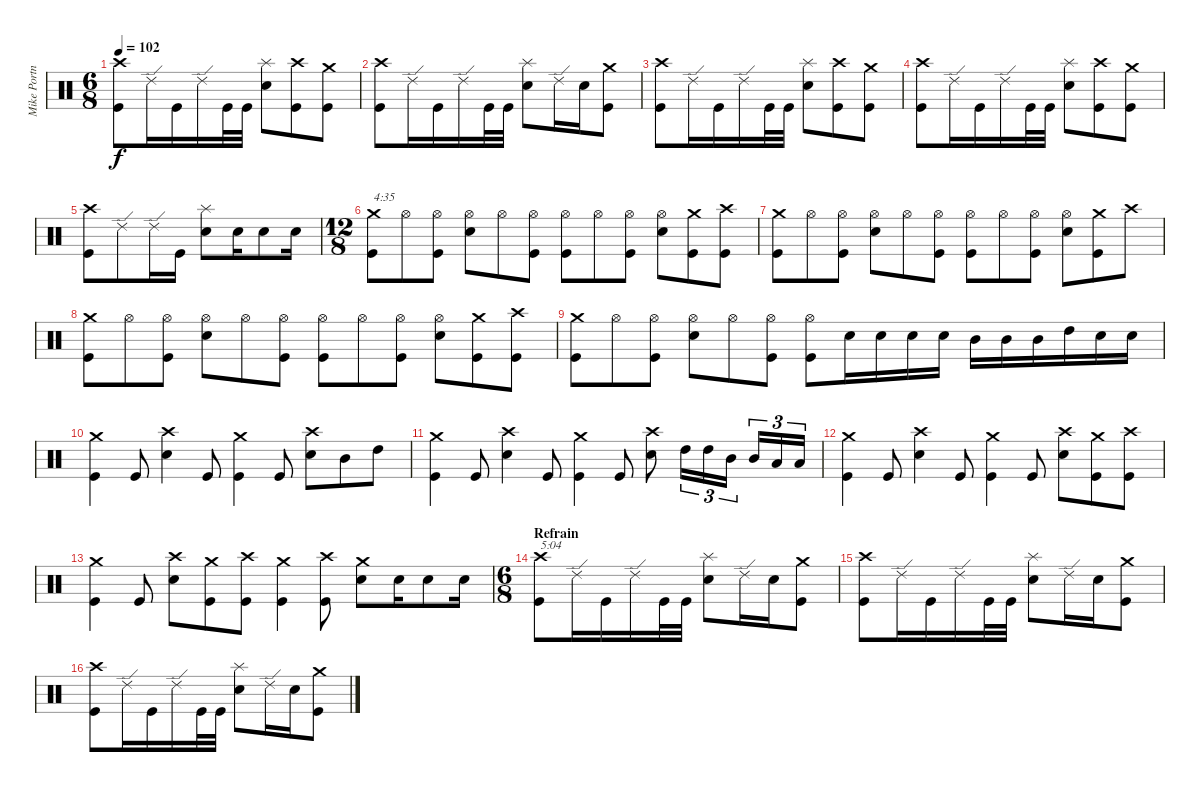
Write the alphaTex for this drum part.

\track ("Mike Portnoy" "Mike Portn") {instrument percussion}
\staff {score}
\articulation defaults
\ts (6 8)
\tempo 102
\clef neutral
\ks c
("Crash high (hit)" "Kick (hit)").8{dy f} "Ride (edge) 2".16 "Kick (hit)".16 "Ride (edge) 2".16 "Kick (hit)".32 "Kick (hit)".32 ("Splash (hit)" "Snare (hit) 2").8 ("Crash high (hit)" "Kick (hit)").8 ("Crash medium (hit)" "Kick (hit)").8 |
("Crash high (hit)" "Kick (hit)").8 "Ride (edge) 2".16 "Kick (hit)".16 "Ride (edge) 2".16 "Kick (hit)".32 "Kick (hit)".32 ("Splash (hit)" "Snare (hit) 2").8 "Ride (edge) 2".16 "Snare (hit) 2".16 ("Crash medium (hit)" "Kick (hit)").8 |
("Crash high (hit)" "Kick (hit)").8 "Ride (edge) 2".16 "Kick (hit)".16 "Ride (edge) 2".16 "Kick (hit)".32 "Kick (hit)".32 ("Splash (hit)" "Snare (hit) 2").8 ("Crash high (hit)" "Kick (hit)").8 ("Crash medium (hit)" "Kick (hit)").8 |
("Crash high (hit)" "Kick (hit)").8 "Ride (edge) 2".16 "Kick (hit)".16 "Ride (edge) 2".16 "Kick (hit)".32 "Kick (hit)".32 ("Splash (hit)" "Snare (hit) 2").8 ("Crash high (hit)" "Kick (hit)").8 ("Crash medium (hit)" "Kick (hit)").8 |
("Crash high (hit)" "Kick (hit)").8 "Ride (edge) 2".8 "Ride (edge) 2".16 "Kick (hit)".16 ("Splash (hit)" "Snare (hit) 2").8 "Snare (hit) 2".16 "Snare (hit) 2".8 "Snare (hit) 2".16 |
\ts (12 8)
\section ("" "")
("Crash medium (hit)" "Kick (hit)").8{txt "4:35"} "Hi-Hat (open)".8 ("Hi-Hat (open)" "Kick (hit)").8 ("Hi-Hat (open)" "Snare (hit) 2").8 "Hi-Hat (open)".8 ("Hi-Hat (open)" "Kick (hit)").8 ("Hi-Hat (open)" "Kick (hit)").8 "Hi-Hat (open)".8 ("Hi-Hat (open)" "Kick (hit)").8 ("Hi-Hat (open)" "Snare (hit) 2").8 ("Crash medium (hit)" "Kick (hit)").8 ("Crash high (hit)" "Kick (hit)").8 |
("Crash medium (hit)" "Kick (hit)").8 "Hi-Hat (open)".8 ("Hi-Hat (open)" "Kick (hit)").8 ("Hi-Hat (open)" "Snare (hit) 2").8 "Hi-Hat (open)".8 ("Hi-Hat (open)" "Kick (hit)").8 ("Hi-Hat (open)" "Kick (hit)").8 "Hi-Hat (open)".8 ("Hi-Hat (open)" "Kick (hit)").8 ("Hi-Hat (open)" "Snare (hit) 2").8 ("Crash medium (hit)" "Kick (hit)").8 "Crash high (hit)".8 |
("Crash medium (hit)" "Kick (hit)").8 "Hi-Hat (open)".8 ("Hi-Hat (open)" "Kick (hit)").8 ("Hi-Hat (open)" "Snare (hit) 2").8 "Hi-Hat (open)".8 ("Hi-Hat (open)" "Kick (hit)").8 ("Hi-Hat (open)" "Kick (hit)").8 "Hi-Hat (open)".8 ("Hi-Hat (open)" "Kick (hit)").8 ("Hi-Hat (open)" "Snare (hit) 2").8 ("Crash medium (hit)" "Kick (hit)").8 ("Crash high (hit)" "Kick (hit)").8 |
("Crash medium (hit)" "Kick (hit)").8 "Hi-Hat (open)".8 ("Hi-Hat (open)" "Kick (hit)").8 ("Hi-Hat (open)" "Snare (hit) 2").8 "Hi-Hat (open)".8 ("Hi-Hat (open)" "Kick (hit)").8 ("Hi-Hat (open)" "Kick (hit)").8 "Snare (hit) 2".16 "Snare (hit) 2".16 "Snare (hit) 2".16 "Snare (hit) 2".16 "Mid Tom (hit)".16 "Mid Tom (hit)".16 "Mid Tom (hit)".16 "High Tom (hit)".16 "Snare (hit) 2".16 "Snare (hit) 2".16 |
("Crash medium (hit)" "Kick (hit)").4 "Kick (hit)".8 ("Crash high (hit)" "Snare (hit) 2").4 "Kick (hit)".8 ("Crash medium (hit)" "Kick (hit)").4 "Kick (hit)".8 ("Crash high (hit)" "Snare (hit) 2").8 "Mid Tom (hit)".8 "High Tom (hit)".8 |
("Crash medium (hit)" "Kick (hit)").4 "Kick (hit)".8 ("Crash high (hit)" "Snare (hit) 2").4 "Kick (hit)".8 ("Crash medium (hit)" "Kick (hit)").4 "Kick (hit)".8 ("Crash high (hit)" "Snare (hit) 2").8 "High Tom (hit)".16{tu (3 2)} "High Tom (hit)".16{tu (3 2)} "Mid Tom (hit)".16{tu (3 2)} "Mid Tom (hit)".16{tu (3 2)} "Low Tom (hit)".16{tu (3 2)} "Low Tom (hit)".16{tu (3 2)} |
("Crash medium (hit)" "Kick (hit)").4 "Kick (hit)".8 ("Crash high (hit)" "Snare (hit) 2").4 "Kick (hit)".8 ("Crash medium (hit)" "Kick (hit)").4 "Kick (hit)".8 ("Crash high (hit)" "Snare (hit) 2").8 ("Crash medium (hit)" "Kick (hit)").8 ("Crash high (hit)" "Kick (hit)").8 |
("Crash medium (hit)" "Kick (hit)").4 "Kick (hit)".8 ("Crash high (hit)" "Snare (hit) 2").8 ("Crash medium (hit)" "Kick (hit)").8 ("Crash high (hit)" "Kick (hit)").8 ("Crash medium (hit)" "Kick (hit)").4 ("Crash high (hit)" "Kick (hit)").8 ("Crash medium (hit)" "Snare (hit) 2").8 "Snare (hit) 2".16 "Snare (hit) 2".8 "Snare (hit) 2".16 |
\ts (6 8)
\section ("" "Refrain")
("Crash high (hit)" "Kick (hit)").8{txt "5:04"} "Ride (edge) 2".16 "Kick (hit)".16 "Ride (edge) 2".16 "Kick (hit)".32 "Kick (hit)".32 ("Splash (hit)" "Snare (hit) 2").8 "Ride (edge) 2".16 "Snare (hit) 2".16 ("Crash medium (hit)" "Kick (hit)").8 |
("Crash high (hit)" "Kick (hit)").8 "Ride (edge) 2".16 "Kick (hit)".16 "Ride (edge) 2".16 "Kick (hit)".32 "Kick (hit)".32 ("Splash (hit)" "Snare (hit) 2").8 "Ride (edge) 2".16 "Snare (hit) 2".16 ("Crash medium (hit)" "Kick (hit)").8 |
("Crash high (hit)" "Kick (hit)").8 "Ride (edge) 2".16 "Kick (hit)".16 "Ride (edge) 2".16 "Kick (hit)".32 "Kick (hit)".32 ("Splash (hit)" "Snare (hit) 2").8 "Ride (edge) 2".16 "Snare (hit) 2".16 ("Crash medium (hit)" "Kick (hit)").8
